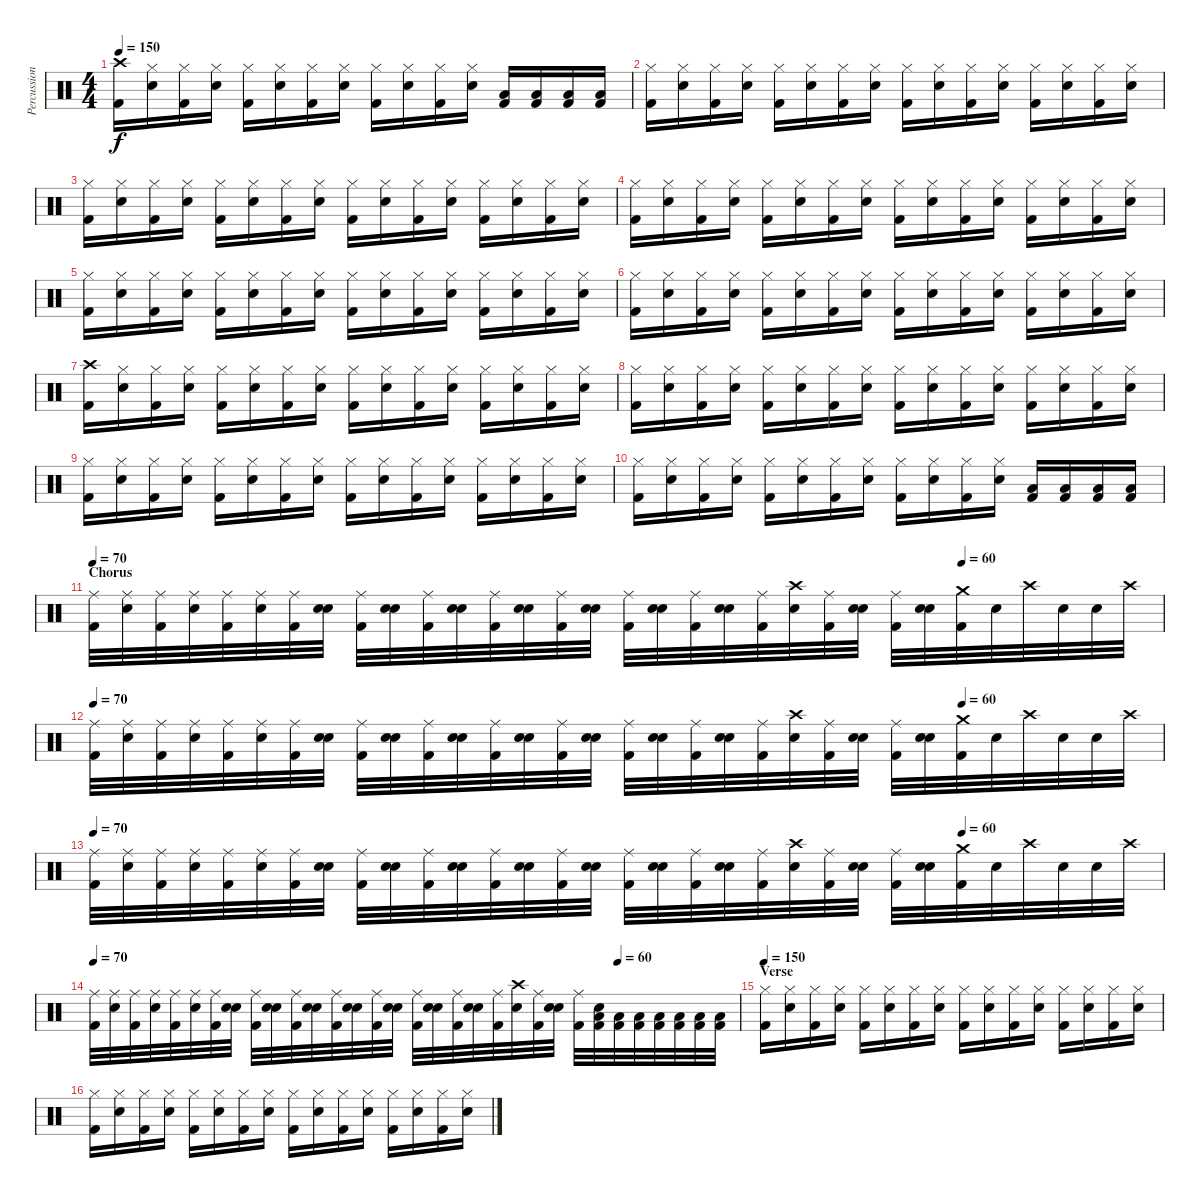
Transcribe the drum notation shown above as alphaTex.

\track ("Percussion" "Percussion") {instrument percussion}
\staff {score}
\articulation defaults
\ts (4 4)
\tempo 150
\clef neutral
\ks c
("Crash high (hit)" "Kick (hit) 2").16{dy f} ("Hi-Hat (closed)" "Electric Snare (hit)").16 ("Hi-Hat (closed)" "Kick (hit) 2").16 ("Hi-Hat (closed)" "Electric Snare (hit)").16 ("Hi-Hat (closed)" "Kick (hit) 2").16 ("Hi-Hat (closed)" "Electric Snare (hit)").16 ("Hi-Hat (closed)" "Kick (hit) 2").16 ("Hi-Hat (closed)" "Electric Snare (hit)").16 ("Hi-Hat (closed)" "Kick (hit) 2").16 ("Hi-Hat (closed)" "Electric Snare (hit)").16 ("Hi-Hat (closed)" "Kick (hit) 2").16 ("Hi-Hat (closed)" "Electric Snare (hit)").16 ("Low Tom (hit)" "Kick (hit) 2").16 ("Low Tom (hit)" "Kick (hit) 2").16 ("Low Tom (hit)" "Kick (hit) 2").16 ("Low Tom (hit)" "Kick (hit) 2").16 |
("Hi-Hat (closed)" "Kick (hit) 2").16 ("Hi-Hat (closed)" "Electric Snare (hit)").16 ("Hi-Hat (closed)" "Kick (hit) 2").16 ("Hi-Hat (closed)" "Electric Snare (hit)").16 ("Hi-Hat (closed)" "Kick (hit) 2").16 ("Hi-Hat (closed)" "Electric Snare (hit)").16 ("Hi-Hat (closed)" "Kick (hit) 2").16 ("Hi-Hat (closed)" "Electric Snare (hit)").16 ("Hi-Hat (closed)" "Kick (hit) 2").16 ("Hi-Hat (closed)" "Electric Snare (hit)").16 ("Hi-Hat (closed)" "Kick (hit) 2").16 ("Hi-Hat (closed)" "Electric Snare (hit)").16 ("Hi-Hat (closed)" "Kick (hit) 2").16 ("Hi-Hat (closed)" "Electric Snare (hit)").16 ("Hi-Hat (closed)" "Kick (hit) 2").16 ("Hi-Hat (closed)" "Electric Snare (hit)").16 |
("Hi-Hat (closed)" "Kick (hit) 2").16 ("Hi-Hat (closed)" "Electric Snare (hit)").16 ("Hi-Hat (closed)" "Kick (hit) 2").16 ("Hi-Hat (closed)" "Electric Snare (hit)").16 ("Hi-Hat (closed)" "Kick (hit) 2").16 ("Hi-Hat (closed)" "Electric Snare (hit)").16 ("Hi-Hat (closed)" "Kick (hit) 2").16 ("Hi-Hat (closed)" "Electric Snare (hit)").16 ("Hi-Hat (closed)" "Kick (hit) 2").16 ("Hi-Hat (closed)" "Electric Snare (hit)").16 ("Hi-Hat (closed)" "Kick (hit) 2").16 ("Hi-Hat (closed)" "Electric Snare (hit)").16 ("Hi-Hat (closed)" "Kick (hit) 2").16 ("Hi-Hat (closed)" "Electric Snare (hit)").16 ("Hi-Hat (closed)" "Kick (hit) 2").16 ("Hi-Hat (closed)" "Electric Snare (hit)").16 |
("Hi-Hat (closed)" "Kick (hit) 2").16 ("Hi-Hat (closed)" "Electric Snare (hit)").16 ("Hi-Hat (closed)" "Kick (hit) 2").16 ("Hi-Hat (closed)" "Electric Snare (hit)").16 ("Hi-Hat (closed)" "Kick (hit) 2").16 ("Hi-Hat (closed)" "Electric Snare (hit)").16 ("Hi-Hat (closed)" "Kick (hit) 2").16 ("Hi-Hat (closed)" "Electric Snare (hit)").16 ("Hi-Hat (closed)" "Kick (hit) 2").16 ("Hi-Hat (closed)" "Electric Snare (hit)").16 ("Hi-Hat (closed)" "Kick (hit) 2").16 ("Hi-Hat (closed)" "Electric Snare (hit)").16 ("Hi-Hat (closed)" "Kick (hit) 2").16 ("Hi-Hat (closed)" "Electric Snare (hit)").16 ("Hi-Hat (closed)" "Kick (hit) 2").16 ("Hi-Hat (closed)" "Electric Snare (hit)").16 |
("Hi-Hat (closed)" "Kick (hit) 2").16 ("Hi-Hat (closed)" "Electric Snare (hit)").16 ("Hi-Hat (closed)" "Kick (hit) 2").16 ("Hi-Hat (closed)" "Electric Snare (hit)").16 ("Hi-Hat (closed)" "Kick (hit) 2").16 ("Hi-Hat (closed)" "Electric Snare (hit)").16 ("Hi-Hat (closed)" "Kick (hit) 2").16 ("Hi-Hat (closed)" "Electric Snare (hit)").16 ("Hi-Hat (closed)" "Kick (hit) 2").16 ("Hi-Hat (closed)" "Electric Snare (hit)").16 ("Hi-Hat (closed)" "Kick (hit) 2").16 ("Hi-Hat (closed)" "Electric Snare (hit)").16 ("Hi-Hat (closed)" "Kick (hit) 2").16 ("Hi-Hat (closed)" "Electric Snare (hit)").16 ("Hi-Hat (closed)" "Kick (hit) 2").16 ("Hi-Hat (closed)" "Electric Snare (hit)").16 |
("Hi-Hat (closed)" "Kick (hit) 2").16 ("Hi-Hat (closed)" "Electric Snare (hit)").16 ("Hi-Hat (closed)" "Kick (hit) 2").16 ("Hi-Hat (closed)" "Electric Snare (hit)").16 ("Hi-Hat (closed)" "Kick (hit) 2").16 ("Hi-Hat (closed)" "Electric Snare (hit)").16 ("Hi-Hat (closed)" "Kick (hit) 2").16 ("Hi-Hat (closed)" "Electric Snare (hit)").16 ("Hi-Hat (closed)" "Kick (hit) 2").16 ("Hi-Hat (closed)" "Electric Snare (hit)").16 ("Hi-Hat (closed)" "Kick (hit) 2").16 ("Hi-Hat (closed)" "Electric Snare (hit)").16 ("Hi-Hat (closed)" "Kick (hit) 2").16 ("Hi-Hat (closed)" "Electric Snare (hit)").16 ("Hi-Hat (closed)" "Kick (hit) 2").16 ("Hi-Hat (closed)" "Electric Snare (hit)").16 |
("Crash high (hit)" "Kick (hit) 2").16 ("Hi-Hat (closed)" "Electric Snare (hit)").16 ("Hi-Hat (closed)" "Kick (hit) 2").16 ("Hi-Hat (closed)" "Electric Snare (hit)").16 ("Hi-Hat (closed)" "Kick (hit) 2").16 ("Hi-Hat (closed)" "Electric Snare (hit)").16 ("Hi-Hat (closed)" "Kick (hit) 2").16 ("Hi-Hat (closed)" "Electric Snare (hit)").16 ("Hi-Hat (closed)" "Kick (hit) 2").16 ("Hi-Hat (closed)" "Electric Snare (hit)").16 ("Hi-Hat (closed)" "Kick (hit) 2").16 ("Hi-Hat (closed)" "Electric Snare (hit)").16 ("Hi-Hat (closed)" "Kick (hit) 2").16 ("Hi-Hat (closed)" "Electric Snare (hit)").16 ("Hi-Hat (closed)" "Kick (hit) 2").16 ("Hi-Hat (closed)" "Electric Snare (hit)").16 |
("Hi-Hat (closed)" "Kick (hit) 2").16 ("Hi-Hat (closed)" "Electric Snare (hit)").16 ("Hi-Hat (closed)" "Kick (hit) 2").16 ("Hi-Hat (closed)" "Electric Snare (hit)").16 ("Hi-Hat (closed)" "Kick (hit) 2").16 ("Hi-Hat (closed)" "Electric Snare (hit)").16 ("Hi-Hat (closed)" "Kick (hit) 2").16 ("Hi-Hat (closed)" "Electric Snare (hit)").16 ("Hi-Hat (closed)" "Kick (hit) 2").16 ("Hi-Hat (closed)" "Electric Snare (hit)").16 ("Hi-Hat (closed)" "Kick (hit) 2").16 ("Hi-Hat (closed)" "Electric Snare (hit)").16 ("Hi-Hat (closed)" "Kick (hit) 2").16 ("Hi-Hat (closed)" "Electric Snare (hit)").16 ("Hi-Hat (closed)" "Kick (hit) 2").16 ("Hi-Hat (closed)" "Electric Snare (hit)").16 |
("Hi-Hat (closed)" "Kick (hit) 2").16 ("Hi-Hat (closed)" "Electric Snare (hit)").16 ("Hi-Hat (closed)" "Kick (hit) 2").16 ("Hi-Hat (closed)" "Electric Snare (hit)").16 ("Hi-Hat (closed)" "Kick (hit) 2").16 ("Hi-Hat (closed)" "Electric Snare (hit)").16 ("Hi-Hat (closed)" "Kick (hit) 2").16 ("Hi-Hat (closed)" "Electric Snare (hit)").16 ("Hi-Hat (closed)" "Kick (hit) 2").16 ("Hi-Hat (closed)" "Electric Snare (hit)").16 ("Hi-Hat (closed)" "Kick (hit) 2").16 ("Hi-Hat (closed)" "Electric Snare (hit)").16 ("Hi-Hat (closed)" "Kick (hit) 2").16 ("Hi-Hat (closed)" "Electric Snare (hit)").16 ("Hi-Hat (closed)" "Kick (hit) 2").16 ("Hi-Hat (closed)" "Electric Snare (hit)").16 |
("Hi-Hat (closed)" "Kick (hit) 2").16 ("Hi-Hat (closed)" "Electric Snare (hit)").16 ("Hi-Hat (closed)" "Kick (hit) 2").16 ("Hi-Hat (closed)" "Electric Snare (hit)").16 ("Hi-Hat (closed)" "Kick (hit) 2").16 ("Hi-Hat (closed)" "Electric Snare (hit)").16 ("Hi-Hat (closed)" "Kick (hit) 2").16 ("Hi-Hat (closed)" "Electric Snare (hit)").16 ("Hi-Hat (closed)" "Kick (hit) 2").16 ("Hi-Hat (closed)" "Electric Snare (hit)").16 ("Hi-Hat (closed)" "Kick (hit) 2").16 ("Hi-Hat (closed)" "Electric Snare (hit)").16 ("Low Tom (hit)" "Kick (hit) 2").16 ("Low Tom (hit)" "Kick (hit) 2").16 ("Low Tom (hit)" "Kick (hit) 2").16 ("Low Tom (hit)" "Kick (hit) 2").16 |
\section ("" "Chorus")
\tempo 70
\tempo (60 0.8125)
("Ride (middle)" "Kick (hit) 2").32 ("Ride (middle)"{x} "Electric Snare (hit)").32 ("Ride (middle)" "Kick (hit) 2").32 ("Ride (middle)"{x} "Electric Snare (hit)").32 ("Ride (middle)" "Kick (hit) 2").32 ("Ride (middle)"{x} "Electric Snare (hit)").32 ("Ride (middle)" "Kick (hit) 2").32 ("Snare (hit)"{x} "Electric Snare (hit)").32 ("Ride (middle)" "Kick (hit) 2").32 ("Snare (hit)"{x} "Electric Snare (hit)").32 ("Ride (middle)" "Kick (hit) 2").32 ("Snare (hit)"{x} "Electric Snare (hit)").32 ("Ride (middle)" "Kick (hit) 2").32 ("Snare (hit)"{x} "Electric Snare (hit)").32 ("Ride (middle)" "Kick (hit) 2").32 ("Snare (hit)"{x} "Electric Snare (hit)").32 ("Ride (middle)" "Kick (hit) 2").32 ("Snare (hit)"{x} "Electric Snare (hit)").32 ("Ride (middle)" "Kick (hit) 2").32 ("Snare (hit)"{x} "Electric Snare (hit)").32 ("Ride (middle)" "Kick (hit) 2").32 ("Crash high (hit)"{x} "Electric Snare (hit)").32 ("Ride (middle)" "Kick (hit) 2").32 ("Snare (hit)"{x} "Electric Snare (hit)").32 ("Ride (middle)" "Kick (hit) 2").32 ("Snare (hit)"{x} "Electric Snare (hit)").32 ("Crash medium (hit)" "Kick (hit) 2").32 "Snare (hit)"{x}.32 "Crash high (hit)".32 "Snare (hit)"{x}.32 "Snare (hit)"{x}.32 "Crash high (hit)".32 |
\tempo 70
\tempo (60 0.8125)
("Ride (middle)" "Kick (hit) 2").32 ("Ride (middle)"{x} "Electric Snare (hit)").32 ("Ride (middle)" "Kick (hit) 2").32 ("Ride (middle)"{x} "Electric Snare (hit)").32 ("Ride (middle)" "Kick (hit) 2").32 ("Ride (middle)"{x} "Electric Snare (hit)").32 ("Ride (middle)" "Kick (hit) 2").32 ("Snare (hit)"{x} "Electric Snare (hit)").32 ("Ride (middle)" "Kick (hit) 2").32 ("Snare (hit)"{x} "Electric Snare (hit)").32 ("Ride (middle)" "Kick (hit) 2").32 ("Snare (hit)"{x} "Electric Snare (hit)").32 ("Ride (middle)" "Kick (hit) 2").32 ("Snare (hit)"{x} "Electric Snare (hit)").32 ("Ride (middle)" "Kick (hit) 2").32 ("Snare (hit)"{x} "Electric Snare (hit)").32 ("Ride (middle)" "Kick (hit) 2").32 ("Snare (hit)"{x} "Electric Snare (hit)").32 ("Ride (middle)" "Kick (hit) 2").32 ("Snare (hit)"{x} "Electric Snare (hit)").32 ("Ride (middle)" "Kick (hit) 2").32 ("Crash high (hit)"{x} "Electric Snare (hit)").32 ("Ride (middle)" "Kick (hit) 2").32 ("Snare (hit)"{x} "Electric Snare (hit)").32 ("Ride (middle)" "Kick (hit) 2").32 ("Snare (hit)"{x} "Electric Snare (hit)").32 ("Crash medium (hit)" "Kick (hit) 2").32 "Snare (hit)"{x}.32 "Crash high (hit)".32 "Snare (hit)"{x}.32 "Snare (hit)"{x}.32 "Crash high (hit)".32 |
\tempo 70
\tempo (60 0.8125)
("Ride (middle)" "Kick (hit) 2").32 ("Ride (middle)"{x} "Electric Snare (hit)").32 ("Ride (middle)" "Kick (hit) 2").32 ("Ride (middle)"{x} "Electric Snare (hit)").32 ("Ride (middle)" "Kick (hit) 2").32 ("Ride (middle)"{x} "Electric Snare (hit)").32 ("Ride (middle)" "Kick (hit) 2").32 ("Snare (hit)"{x} "Electric Snare (hit)").32 ("Ride (middle)" "Kick (hit) 2").32 ("Snare (hit)"{x} "Electric Snare (hit)").32 ("Ride (middle)" "Kick (hit) 2").32 ("Snare (hit)"{x} "Electric Snare (hit)").32 ("Ride (middle)" "Kick (hit) 2").32 ("Snare (hit)"{x} "Electric Snare (hit)").32 ("Ride (middle)" "Kick (hit) 2").32 ("Snare (hit)"{x} "Electric Snare (hit)").32 ("Ride (middle)" "Kick (hit) 2").32 ("Snare (hit)"{x} "Electric Snare (hit)").32 ("Ride (middle)" "Kick (hit) 2").32 ("Snare (hit)"{x} "Electric Snare (hit)").32 ("Ride (middle)" "Kick (hit) 2").32 ("Crash high (hit)"{x} "Electric Snare (hit)").32 ("Ride (middle)" "Kick (hit) 2").32 ("Snare (hit)"{x} "Electric Snare (hit)").32 ("Ride (middle)" "Kick (hit) 2").32 ("Snare (hit)"{x} "Electric Snare (hit)").32 ("Crash medium (hit)" "Kick (hit) 2").32 "Snare (hit)"{x}.32 "Crash high (hit)".32 "Snare (hit)"{x}.32 "Snare (hit)"{x}.32 "Crash high (hit)".32 |
\tempo 70
\tempo (60 0.8125)
("Ride (middle)" "Kick (hit) 2").32 ("Ride (middle)"{x} "Electric Snare (hit)").32 ("Ride (middle)" "Kick (hit) 2").32 ("Ride (middle)"{x} "Electric Snare (hit)").32 ("Ride (middle)" "Kick (hit) 2").32 ("Ride (middle)"{x} "Electric Snare (hit)").32 ("Ride (middle)" "Kick (hit) 2").32 ("Snare (hit)"{x} "Electric Snare (hit)").32 ("Ride (middle)" "Kick (hit) 2").32 ("Snare (hit)"{x} "Electric Snare (hit)").32 ("Ride (middle)" "Kick (hit) 2").32 ("Snare (hit)"{x} "Electric Snare (hit)").32 ("Ride (middle)" "Kick (hit) 2").32 ("Snare (hit)"{x} "Electric Snare (hit)").32 ("Ride (middle)" "Kick (hit) 2").32 ("Snare (hit)"{x} "Electric Snare (hit)").32 ("Ride (middle)" "Kick (hit) 2").32 ("Snare (hit)"{x} "Electric Snare (hit)").32 ("Ride (middle)" "Kick (hit) 2").32 ("Snare (hit)"{x} "Electric Snare (hit)").32 ("Ride (middle)" "Kick (hit) 2").32 ("Crash high (hit)"{x} "Electric Snare (hit)").32 ("Ride (middle)" "Kick (hit) 2").32 ("Snare (hit)"{x} "Electric Snare (hit)").32 ("Ride (middle)" "Kick (hit) 2").32 ("Snare (hit)"{x} "Low Tom (hit)" "Kick (hit) 2").32 ("Low Tom (hit)" "Kick (hit) 2").32 ("Low Tom (hit)" "Kick (hit) 2").32 ("Low Tom (hit)" "Kick (hit) 2").32 ("Low Tom (hit)" "Kick (hit) 2").32 ("Low Tom (hit)" "Kick (hit) 2").32 ("Low Tom (hit)" "Kick (hit) 2").32 |
\section ("" "Verse")
\tempo 150
("Hi-Hat (closed)" "Kick (hit) 2").16 ("Hi-Hat (closed)" "Electric Snare (hit)").16 ("Hi-Hat (closed)" "Kick (hit) 2").16 ("Hi-Hat (closed)" "Electric Snare (hit)").16 ("Hi-Hat (closed)" "Kick (hit) 2").16 ("Hi-Hat (closed)" "Electric Snare (hit)").16 ("Hi-Hat (closed)" "Kick (hit) 2").16 ("Hi-Hat (closed)" "Electric Snare (hit)").16 ("Hi-Hat (closed)" "Kick (hit) 2").16 ("Hi-Hat (closed)" "Electric Snare (hit)").16 ("Hi-Hat (closed)" "Kick (hit) 2").16 ("Hi-Hat (closed)" "Electric Snare (hit)").16 ("Hi-Hat (closed)" "Kick (hit) 2").16 ("Hi-Hat (closed)" "Electric Snare (hit)").16 ("Hi-Hat (closed)" "Kick (hit) 2").16 ("Hi-Hat (closed)" "Electric Snare (hit)").16 |
("Hi-Hat (closed)" "Kick (hit) 2").16 ("Hi-Hat (closed)" "Electric Snare (hit)").16 ("Hi-Hat (closed)" "Kick (hit) 2").16 ("Hi-Hat (closed)" "Electric Snare (hit)").16 ("Hi-Hat (closed)" "Kick (hit) 2").16 ("Hi-Hat (closed)" "Electric Snare (hit)").16 ("Hi-Hat (closed)" "Kick (hit) 2").16 ("Hi-Hat (closed)" "Electric Snare (hit)").16 ("Hi-Hat (closed)" "Kick (hit) 2").16 ("Hi-Hat (closed)" "Electric Snare (hit)").16 ("Hi-Hat (closed)" "Kick (hit) 2").16 ("Hi-Hat (closed)" "Electric Snare (hit)").16 ("Hi-Hat (closed)" "Kick (hit) 2").16 ("Hi-Hat (closed)" "Electric Snare (hit)").16 ("Hi-Hat (closed)" "Kick (hit) 2").16 ("Hi-Hat (closed)" "Electric Snare (hit)").16
